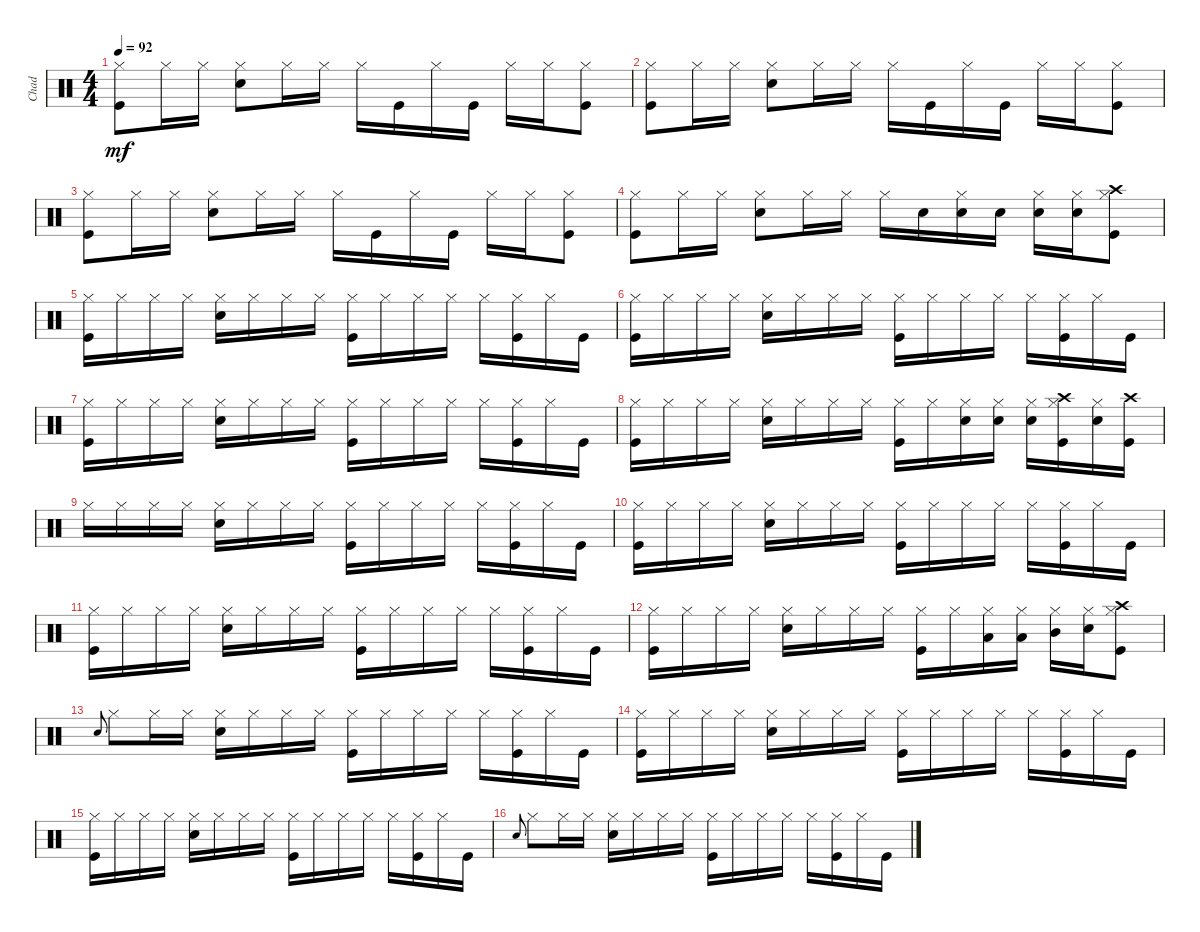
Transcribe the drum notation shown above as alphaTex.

\track ("Chad" "Chad") {instrument percussion}
\staff {score}
\articulation defaults
\ts (4 4)
\tempo 92
\clef neutral
\ks c
("Kick (hit)" "Hi-Hat (closed)").8{dy mf} "Hi-Hat (closed)".16 "Hi-Hat (closed)".16 ("Snare (hit) 2" "Hi-Hat (closed)").8 "Hi-Hat (closed)".16 "Hi-Hat (closed)".16 "Hi-Hat (closed)".16 "Kick (hit)".16 "Hi-Hat (closed)".16 "Kick (hit)".16 "Hi-Hat (closed)".16 "Hi-Hat (closed)".16 ("Hi-Hat (closed)" "Kick (hit)").8 |
("Kick (hit)" "Hi-Hat (closed)").8 "Hi-Hat (closed)".16 "Hi-Hat (closed)".16 ("Snare (hit) 2" "Hi-Hat (closed)").8 "Hi-Hat (closed)".16 "Hi-Hat (closed)".16 "Hi-Hat (closed)".16 "Kick (hit)".16 "Hi-Hat (closed)".16 "Kick (hit)".16 "Hi-Hat (closed)".16 "Hi-Hat (closed)".16 ("Hi-Hat (closed)" "Kick (hit)").8 |
("Kick (hit)" "Hi-Hat (closed)").8 "Hi-Hat (closed)".16 "Hi-Hat (closed)".16 ("Snare (hit) 2" "Hi-Hat (closed)").8 "Hi-Hat (closed)".16 "Hi-Hat (closed)".16 "Hi-Hat (closed)".16 "Kick (hit)".16 "Hi-Hat (closed)".16 "Kick (hit)".16 "Hi-Hat (closed)".16 "Hi-Hat (closed)".16 ("Hi-Hat (closed)" "Kick (hit)").8 |
("Kick (hit)" "Hi-Hat (closed)").8 "Hi-Hat (closed)".16 "Hi-Hat (closed)".16 ("Snare (hit) 2" "Hi-Hat (closed)").8 "Hi-Hat (closed)".16 "Hi-Hat (closed)".16 "Hi-Hat (closed)".16 "Snare (hit) 2".16 ("Hi-Hat (closed)" "Snare (hit) 2").16 "Snare (hit) 2".16 ("Hi-Hat (closed)" "Snare (hit) 2").16 ("Hi-Hat (closed)" "Snare (hit) 2").16 ("Hi-Hat (closed)" "Kick (hit)" "Crash high (hit)").8 |
("Kick (hit)" "Hi-Hat (closed)").16 "Hi-Hat (closed)".16 "Hi-Hat (closed)".16 "Hi-Hat (closed)".16 ("Snare (hit) 2" "Hi-Hat (closed)").16 "Hi-Hat (closed)".16 "Hi-Hat (closed)".16 "Hi-Hat (closed)".16 ("Kick (hit)" "Hi-Hat (closed)").16 "Hi-Hat (closed)".16 "Hi-Hat (closed)".16 "Hi-Hat (closed)".16 "Hi-Hat (closed)".16 ("Kick (hit)" "Hi-Hat (closed)").16 "Hi-Hat (closed)".16 "Kick (hit)".16 |
("Kick (hit)" "Hi-Hat (closed)").16 "Hi-Hat (closed)".16 "Hi-Hat (closed)".16 "Hi-Hat (closed)".16 ("Snare (hit) 2" "Hi-Hat (closed)").16 "Hi-Hat (closed)".16 "Hi-Hat (closed)".16 "Hi-Hat (closed)".16 ("Kick (hit)" "Hi-Hat (closed)").16 "Hi-Hat (closed)".16 "Hi-Hat (closed)".16 "Hi-Hat (closed)".16 "Hi-Hat (closed)".16 ("Kick (hit)" "Hi-Hat (closed)").16 "Hi-Hat (closed)".16 "Kick (hit)".16 |
("Kick (hit)" "Hi-Hat (closed)").16 "Hi-Hat (closed)".16 "Hi-Hat (closed)".16 "Hi-Hat (closed)".16 ("Snare (hit) 2" "Hi-Hat (closed)").16 "Hi-Hat (closed)".16 "Hi-Hat (closed)".16 "Hi-Hat (closed)".16 ("Kick (hit)" "Hi-Hat (closed)").16 "Hi-Hat (closed)".16 "Hi-Hat (closed)".16 "Hi-Hat (closed)".16 "Hi-Hat (closed)".16 ("Kick (hit)" "Hi-Hat (closed)").16 "Hi-Hat (closed)".16 "Kick (hit)".16 |
("Kick (hit)" "Hi-Hat (closed)").16 "Hi-Hat (closed)".16 "Hi-Hat (closed)".16 "Hi-Hat (closed)".16 ("Snare (hit) 2" "Hi-Hat (closed)").16 "Hi-Hat (closed)".16 "Hi-Hat (closed)".16 "Hi-Hat (closed)".16 ("Kick (hit)" "Hi-Hat (closed)").16 "Hi-Hat (closed)".16 ("Hi-Hat (closed)" "Snare (hit) 2").16 ("Hi-Hat (closed)" "Snare (hit) 2").16 ("Hi-Hat (closed)" "Snare (hit) 2").16 ("Hi-Hat (closed)" "Kick (hit)" "Crash high (hit)").16 ("Hi-Hat (closed)" "Snare (hit) 2").16 ("Kick (hit)" "Crash high (hit)").16 |
"Hi-Hat (closed)".16 "Hi-Hat (closed)".16 "Hi-Hat (closed)".16 "Hi-Hat (closed)".16 ("Snare (hit) 2" "Hi-Hat (closed)").16 "Hi-Hat (closed)".16 "Hi-Hat (closed)".16 "Hi-Hat (closed)".16 ("Kick (hit)" "Hi-Hat (closed)").16 "Hi-Hat (closed)".16 "Hi-Hat (closed)".16 "Hi-Hat (closed)".16 "Hi-Hat (closed)".16 ("Kick (hit)" "Hi-Hat (closed)").16 "Hi-Hat (closed)".16 "Kick (hit)".16 |
("Kick (hit)" "Hi-Hat (closed)").16 "Hi-Hat (closed)".16 "Hi-Hat (closed)".16 "Hi-Hat (closed)".16 ("Snare (hit) 2" "Hi-Hat (closed)").16 "Hi-Hat (closed)".16 "Hi-Hat (closed)".16 "Hi-Hat (closed)".16 ("Kick (hit)" "Hi-Hat (closed)").16 "Hi-Hat (closed)".16 "Hi-Hat (closed)".16 "Hi-Hat (closed)".16 "Hi-Hat (closed)".16 ("Kick (hit)" "Hi-Hat (closed)").16 "Hi-Hat (closed)".16 "Kick (hit)".16 |
("Kick (hit)" "Hi-Hat (closed)").16 "Hi-Hat (closed)".16 "Hi-Hat (closed)".16 "Hi-Hat (closed)".16 ("Snare (hit) 2" "Hi-Hat (closed)").16 "Hi-Hat (closed)".16 "Hi-Hat (closed)".16 "Hi-Hat (closed)".16 ("Kick (hit)" "Hi-Hat (closed)").16 "Hi-Hat (closed)".16 "Hi-Hat (closed)".16 "Hi-Hat (closed)".16 "Hi-Hat (closed)".16 ("Kick (hit)" "Hi-Hat (closed)").16 "Hi-Hat (closed)".16 "Kick (hit)".16 |
("Kick (hit)" "Hi-Hat (closed)").16 "Hi-Hat (closed)".16 "Hi-Hat (closed)".16 "Hi-Hat (closed)".16 ("Snare (hit) 2" "Hi-Hat (closed)").16 "Hi-Hat (closed)".16 "Hi-Hat (closed)".16 "Hi-Hat (closed)".16 ("Kick (hit)" "Hi-Hat (closed)").16 "Hi-Hat (closed)".16 ("Hi-Hat (closed)" "Low Tom (hit)").16 ("Hi-Hat (closed)" "Low Tom (hit)").16 ("Hi-Hat (closed)" "Mid Tom (hit)").16 ("Hi-Hat (closed)" "Snare (hit) 2").16 ("Hi-Hat (closed)" "Kick (hit)" "Crash high (hit)").8 |
"Snare (hit)".8{gr onbeat} "Hi-Hat (closed)".8 "Hi-Hat (closed)".16 "Hi-Hat (closed)".16 ("Snare (hit) 2" "Hi-Hat (closed)").16 "Hi-Hat (closed)".16 "Hi-Hat (closed)".16 "Hi-Hat (closed)".16 ("Kick (hit)" "Hi-Hat (closed)").16 "Hi-Hat (closed)".16 "Hi-Hat (closed)".16 "Hi-Hat (closed)".16 "Hi-Hat (closed)".16 ("Kick (hit)" "Hi-Hat (closed)").16 "Hi-Hat (closed)".16 "Kick (hit)".16 |
("Kick (hit)" "Hi-Hat (closed)").16 "Hi-Hat (closed)".16 "Hi-Hat (closed)".16 "Hi-Hat (closed)".16 ("Snare (hit) 2" "Hi-Hat (closed)").16 "Hi-Hat (closed)".16 "Hi-Hat (closed)".16 "Hi-Hat (closed)".16 ("Kick (hit)" "Hi-Hat (closed)").16 "Hi-Hat (closed)".16 "Hi-Hat (closed)".16 "Hi-Hat (closed)".16 "Hi-Hat (closed)".16 ("Kick (hit)" "Hi-Hat (closed)").16 "Hi-Hat (closed)".16 "Kick (hit)".16 |
("Kick (hit)" "Hi-Hat (closed)").16 "Hi-Hat (closed)".16 "Hi-Hat (closed)".16 "Hi-Hat (closed)".16 ("Snare (hit) 2" "Hi-Hat (closed)").16 "Hi-Hat (closed)".16 "Hi-Hat (closed)".16 "Hi-Hat (closed)".16 ("Kick (hit)" "Hi-Hat (closed)").16 "Hi-Hat (closed)".16 "Hi-Hat (closed)".16 "Hi-Hat (closed)".16 "Hi-Hat (closed)".16 ("Kick (hit)" "Hi-Hat (closed)").16 "Hi-Hat (closed)".16 "Kick (hit)".16 |
"Snare (hit)".8{gr onbeat} "Hi-Hat (closed)".8 "Hi-Hat (closed)".16 "Hi-Hat (closed)".16 ("Snare (hit) 2" "Hi-Hat (closed)").16 "Hi-Hat (closed)".16 "Hi-Hat (closed)".16 "Hi-Hat (closed)".16 ("Kick (hit)" "Hi-Hat (closed)").16 "Hi-Hat (closed)".16 "Hi-Hat (closed)".16 "Hi-Hat (closed)".16 "Hi-Hat (closed)".16 ("Kick (hit)" "Hi-Hat (closed)").16 "Hi-Hat (closed)".16 "Kick (hit)".16
